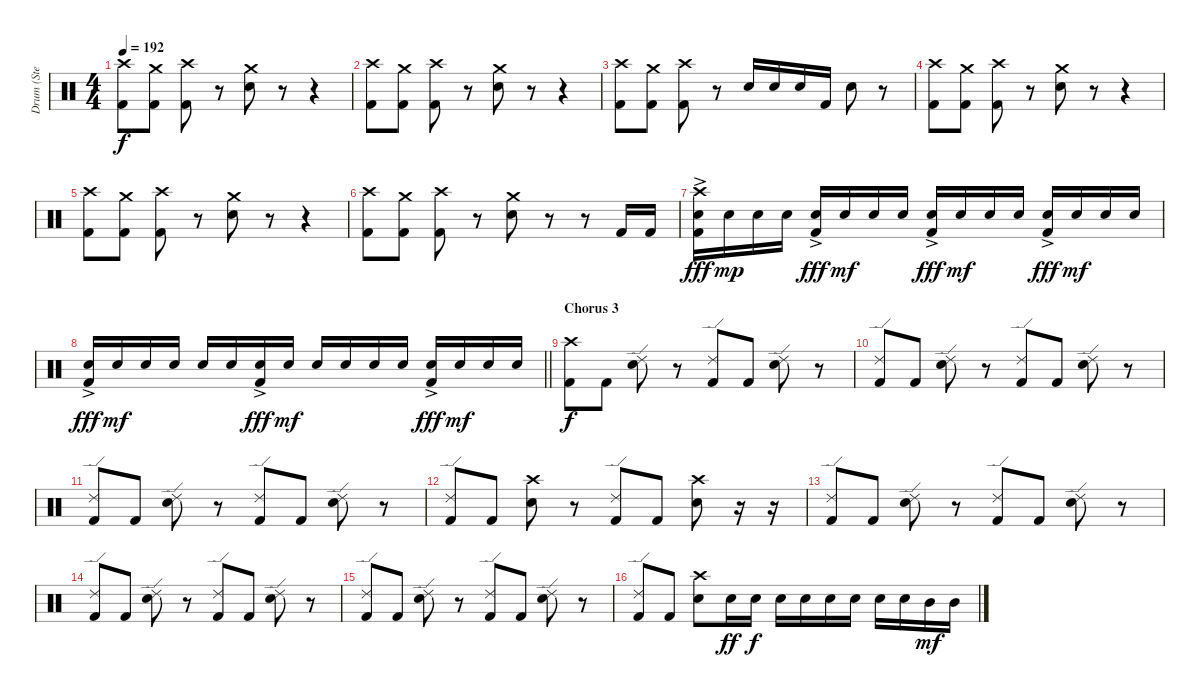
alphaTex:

\track (" Drum (Steve O)" " Drum (Ste") {instrument percussion}
\staff {score}
\articulation defaults
\ts (4 4)
\tempo 192
\clef neutral
\ks c
("Crash high (hit)" "Kick (hit) 2").8{dy f} ("Crash medium (hit)" "Kick (hit) 2").8 ("Crash high (hit)" "Kick (hit) 2").8 r.8 ("Crash medium (hit)" "Snare (hit) 2").8 r.8 r.4 |
("Crash high (hit)" "Kick (hit) 2").8 ("Crash medium (hit)" "Kick (hit) 2").8 ("Crash high (hit)" "Kick (hit) 2").8 r.8 ("Crash medium (hit)" "Snare (hit) 2").8 r.8 r.4 |
("Crash high (hit)" "Kick (hit) 2").8 ("Crash medium (hit)" "Kick (hit) 2").8 ("Crash high (hit)" "Kick (hit) 2").8 r.8 "Snare (hit) 2".16 "Snare (hit) 2".16 "Snare (hit) 2".16 "Kick (hit) 2".16 "Snare (hit) 2".8 r.8 |
("Crash high (hit)" "Kick (hit) 2").8 ("Crash medium (hit)" "Kick (hit) 2").8 ("Crash high (hit)" "Kick (hit) 2").8 r.8 ("Crash medium (hit)" "Snare (hit) 2").8 r.8 r.4 |
("Crash high (hit)" "Kick (hit) 2").8 ("Crash medium (hit)" "Kick (hit) 2").8 ("Crash high (hit)" "Kick (hit) 2").8 r.8 ("Crash medium (hit)" "Snare (hit) 2").8 r.8 r.4 |
("Crash high (hit)" "Kick (hit) 2").8 ("Crash medium (hit)" "Kick (hit) 2").8 ("Crash high (hit)" "Kick (hit) 2").8 r.8 ("Crash medium (hit)" "Snare (hit) 2").8 r.8 r.8 "Kick (hit) 2".16 "Kick (hit) 2".16 |
("Crash high (hit)" "Snare (hit) 2"{ac} "Kick (hit) 2").16{dy fff} "Snare (hit) 2".16{dy mp} "Snare (hit) 2".16 "Snare (hit) 2".16 ("Snare (hit) 2"{ac} "Kick (hit) 2").16{dy fff} "Snare (hit) 2".16{dy mf} "Snare (hit) 2".16 "Snare (hit) 2".16 ("Snare (hit) 2"{ac} "Kick (hit) 2").16{dy fff} "Snare (hit) 2".16{dy mf} "Snare (hit) 2".16 "Snare (hit) 2".16 ("Snare (hit) 2"{ac} "Kick (hit) 2").16{dy fff} "Snare (hit) 2".16{dy mf} "Snare (hit) 2".16 "Snare (hit) 2".16 |
\barLineRight lightlight
("Snare (hit) 2"{ac} "Kick (hit) 2").16{dy fff} "Snare (hit) 2".16{dy mf} "Snare (hit) 2".16 "Snare (hit) 2".16 "Snare (hit) 2".16 "Snare (hit) 2".16 ("Snare (hit) 2"{ac} "Kick (hit) 2").16{dy fff} "Snare (hit) 2".16{dy mf} "Snare (hit) 2".16{beam Up} "Snare (hit) 2".16{beam Up} "Snare (hit) 2".16{beam Up} "Snare (hit) 2".16{beam Up} ("Snare (hit) 2"{ac} "Kick (hit) 2").16{dy fff} "Snare (hit) 2".16{dy mf} "Snare (hit) 2".16 "Snare (hit) 2".16 |
\section ("" "Chorus 3")
("Crash high (hit)" "Kick (hit) 2").8{dy f} "Kick (hit) 2".8 ("Ride (edge) 2" "Snare (hit) 2").8 r.8 ("Ride (edge) 2" "Kick (hit) 2").8 "Kick (hit) 2".8 ("Ride (edge) 2" "Snare (hit) 2").8 r.8 |
("Ride (edge) 2" "Kick (hit) 2").8 "Kick (hit) 2".8 ("Ride (edge) 2" "Snare (hit) 2").8 r.8 ("Ride (edge) 2" "Kick (hit) 2").8 "Kick (hit) 2".8 ("Ride (edge) 2" "Snare (hit) 2").8 r.8 |
("Ride (edge) 2" "Kick (hit) 2").8 "Kick (hit) 2".8 ("Ride (edge) 2" "Snare (hit) 2").8 r.8 ("Ride (edge) 2" "Kick (hit) 2").8 "Kick (hit) 2".8 ("Ride (edge) 2" "Snare (hit) 2").8 r.8 |
("Ride (edge) 2" "Kick (hit) 2").8 "Kick (hit) 2".8 ("Crash high (hit)" "Snare (hit) 2").8 r.8 ("Ride (edge) 2" "Kick (hit) 2").8 "Kick (hit) 2".8 ("Crash high (hit)" "Snare (hit) 2").8 r.16 r.16 |
("Ride (edge) 2" "Kick (hit) 2").8 "Kick (hit) 2".8 ("Ride (edge) 2" "Snare (hit) 2").8 r.8 ("Ride (edge) 2" "Kick (hit) 2").8 "Kick (hit) 2".8 ("Ride (edge) 2" "Snare (hit) 2").8 r.8 |
("Ride (edge) 2" "Kick (hit) 2").8 "Kick (hit) 2".8 ("Ride (edge) 2" "Snare (hit) 2").8 r.8 ("Ride (edge) 2" "Kick (hit) 2").8 "Kick (hit) 2".8 ("Ride (edge) 2" "Snare (hit) 2").8 r.8 |
("Ride (edge) 2" "Kick (hit) 2").8 "Kick (hit) 2".8 ("Ride (edge) 2" "Snare (hit) 2").8 r.8 ("Ride (edge) 2" "Kick (hit) 2").8 "Kick (hit) 2".8 ("Ride (edge) 2" "Snare (hit) 2").8 r.8 |
("Ride (edge) 2" "Kick (hit) 2").8 "Kick (hit) 2".8 ("Crash high (hit)" "Snare (hit) 2").8 "Snare (hit) 2".16{dy ff} "Snare (hit) 2".16{dy f} "Snare (hit) 2".16 "Snare (hit) 2".16 "Snare (hit) 2".16 "Snare (hit) 2".16 "Snare (hit) 2".16 "Snare (hit) 2".16 "Mid Tom (hit)".16{dy mf} "Mid Tom (hit)".16
